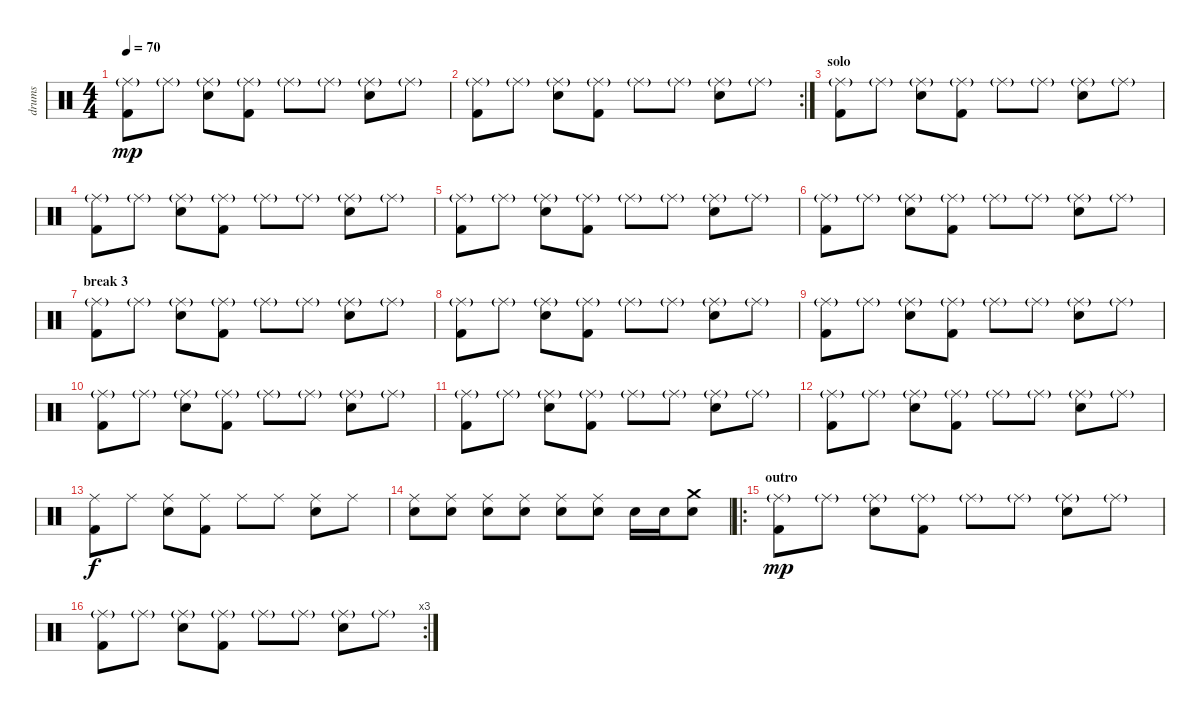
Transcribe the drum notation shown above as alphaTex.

\track ("drums" "drums") {instrument percussion}
\staff {score}
\articulation defaults
\ts (4 4)
\tempo 70
\clef neutral
\ks c
("Kick (hit) 2" "Ride (middle)"{g}).8{dy mp} "Ride (middle)"{g}.8 ("Snare (hit) 2" "Ride (middle)"{g}).8 ("Kick (hit) 2" "Ride (middle)"{g}).8 "Ride (middle)"{g}.8 "Ride (middle)"{g}.8 ("Snare (hit) 2" "Ride (middle)"{g}).8 "Ride (middle)"{g}.8 |
\rc 2
("Kick (hit) 2" "Ride (middle)"{g}).8 "Ride (middle)"{g}.8 ("Snare (hit) 2" "Ride (middle)"{g}).8 ("Kick (hit) 2" "Ride (middle)"{g}).8 "Ride (middle)"{g}.8 "Ride (middle)"{g}.8 ("Snare (hit) 2" "Ride (middle)"{g}).8 "Ride (middle)"{g}.8 |
\section ("" "solo")
("Kick (hit) 2" "Ride (middle)"{g}).8 "Ride (middle)"{g}.8 ("Snare (hit) 2" "Ride (middle)"{g}).8 ("Kick (hit) 2" "Ride (middle)"{g}).8 "Ride (middle)"{g}.8 "Ride (middle)"{g}.8 ("Snare (hit) 2" "Ride (middle)"{g}).8 "Ride (middle)"{g}.8 |
("Kick (hit) 2" "Ride (middle)"{g}).8 "Ride (middle)"{g}.8 ("Snare (hit) 2" "Ride (middle)"{g}).8 ("Kick (hit) 2" "Ride (middle)"{g}).8 "Ride (middle)"{g}.8 "Ride (middle)"{g}.8 ("Snare (hit) 2" "Ride (middle)"{g}).8 "Ride (middle)"{g}.8 |
("Kick (hit) 2" "Ride (middle)"{g}).8 "Ride (middle)"{g}.8 ("Snare (hit) 2" "Ride (middle)"{g}).8 ("Kick (hit) 2" "Ride (middle)"{g}).8 "Ride (middle)"{g}.8 "Ride (middle)"{g}.8 ("Snare (hit) 2" "Ride (middle)"{g}).8 "Ride (middle)"{g}.8 |
("Kick (hit) 2" "Ride (middle)"{g}).8 "Ride (middle)"{g}.8 ("Snare (hit) 2" "Ride (middle)"{g}).8 ("Kick (hit) 2" "Ride (middle)"{g}).8 "Ride (middle)"{g}.8 "Ride (middle)"{g}.8 ("Snare (hit) 2" "Ride (middle)"{g}).8 "Ride (middle)"{g}.8 |
\section ("" "break 3")
("Kick (hit) 2" "Ride (middle)"{g}).8 "Ride (middle)"{g}.8 ("Snare (hit) 2" "Ride (middle)"{g}).8 ("Kick (hit) 2" "Ride (middle)"{g}).8 "Ride (middle)"{g}.8 "Ride (middle)"{g}.8 ("Snare (hit) 2" "Ride (middle)"{g}).8 "Ride (middle)"{g}.8 |
("Kick (hit) 2" "Ride (middle)"{g}).8 "Ride (middle)"{g}.8 ("Snare (hit) 2" "Ride (middle)"{g}).8 ("Kick (hit) 2" "Ride (middle)"{g}).8 "Ride (middle)"{g}.8 "Ride (middle)"{g}.8 ("Snare (hit) 2" "Ride (middle)"{g}).8 "Ride (middle)"{g}.8 |
("Kick (hit) 2" "Ride (middle)"{g}).8 "Ride (middle)"{g}.8 ("Snare (hit) 2" "Ride (middle)"{g}).8 ("Kick (hit) 2" "Ride (middle)"{g}).8 "Ride (middle)"{g}.8 "Ride (middle)"{g}.8 ("Snare (hit) 2" "Ride (middle)"{g}).8 "Ride (middle)"{g}.8 |
("Kick (hit) 2" "Ride (middle)"{g}).8 "Ride (middle)"{g}.8 ("Snare (hit) 2" "Ride (middle)"{g}).8 ("Kick (hit) 2" "Ride (middle)"{g}).8 "Ride (middle)"{g}.8 "Ride (middle)"{g}.8 ("Snare (hit) 2" "Ride (middle)"{g}).8 "Ride (middle)"{g}.8 |
("Kick (hit) 2" "Ride (middle)"{g}).8 "Ride (middle)"{g}.8 ("Snare (hit) 2" "Ride (middle)"{g}).8 ("Kick (hit) 2" "Ride (middle)"{g}).8 "Ride (middle)"{g}.8 "Ride (middle)"{g}.8 ("Snare (hit) 2" "Ride (middle)"{g}).8 "Ride (middle)"{g}.8 |
("Kick (hit) 2" "Ride (middle)"{g}).8 "Ride (middle)"{g}.8 ("Snare (hit) 2" "Ride (middle)"{g}).8 ("Kick (hit) 2" "Ride (middle)"{g}).8 "Ride (middle)"{g}.8 "Ride (middle)"{g}.8 ("Snare (hit) 2" "Ride (middle)"{g}).8 "Ride (middle)"{g}.8 |
("Kick (hit) 2" "Ride (middle)").8{dy f} "Ride (middle)".8 ("Snare (hit) 2" "Ride (middle)").8 ("Kick (hit) 2" "Ride (middle)").8 "Ride (middle)".8 "Ride (middle)".8 ("Snare (hit) 2" "Ride (middle)").8 "Ride (middle)".8 |
("Snare (hit) 2" "Ride (middle)").8 ("Snare (hit) 2" "Ride (middle)").8 ("Snare (hit) 2" "Ride (middle)").8 ("Snare (hit) 2" "Ride (middle)").8 ("Snare (hit) 2" "Ride (middle)").8 ("Snare (hit) 2" "Ride (middle)").8 "Snare (hit) 2".16 "Snare (hit) 2".16 ("Snare (hit) 2" "Crash medium (hit)").8 |
\ro
\section ("" "outro")
("Kick (hit) 2" "Ride (middle)"{g}).8{dy mp} "Ride (middle)"{g}.8 ("Snare (hit) 2" "Ride (middle)"{g}).8 ("Kick (hit) 2" "Ride (middle)"{g}).8 "Ride (middle)"{g}.8 "Ride (middle)"{g}.8 ("Snare (hit) 2" "Ride (middle)"{g}).8 "Ride (middle)"{g}.8 |
\rc 3
("Kick (hit) 2" "Ride (middle)"{g}).8 "Ride (middle)"{g}.8 ("Snare (hit) 2" "Ride (middle)"{g}).8 ("Kick (hit) 2" "Ride (middle)"{g}).8 "Ride (middle)"{g}.8 "Ride (middle)"{g}.8 ("Snare (hit) 2" "Ride (middle)"{g}).8 "Ride (middle)"{g}.8
